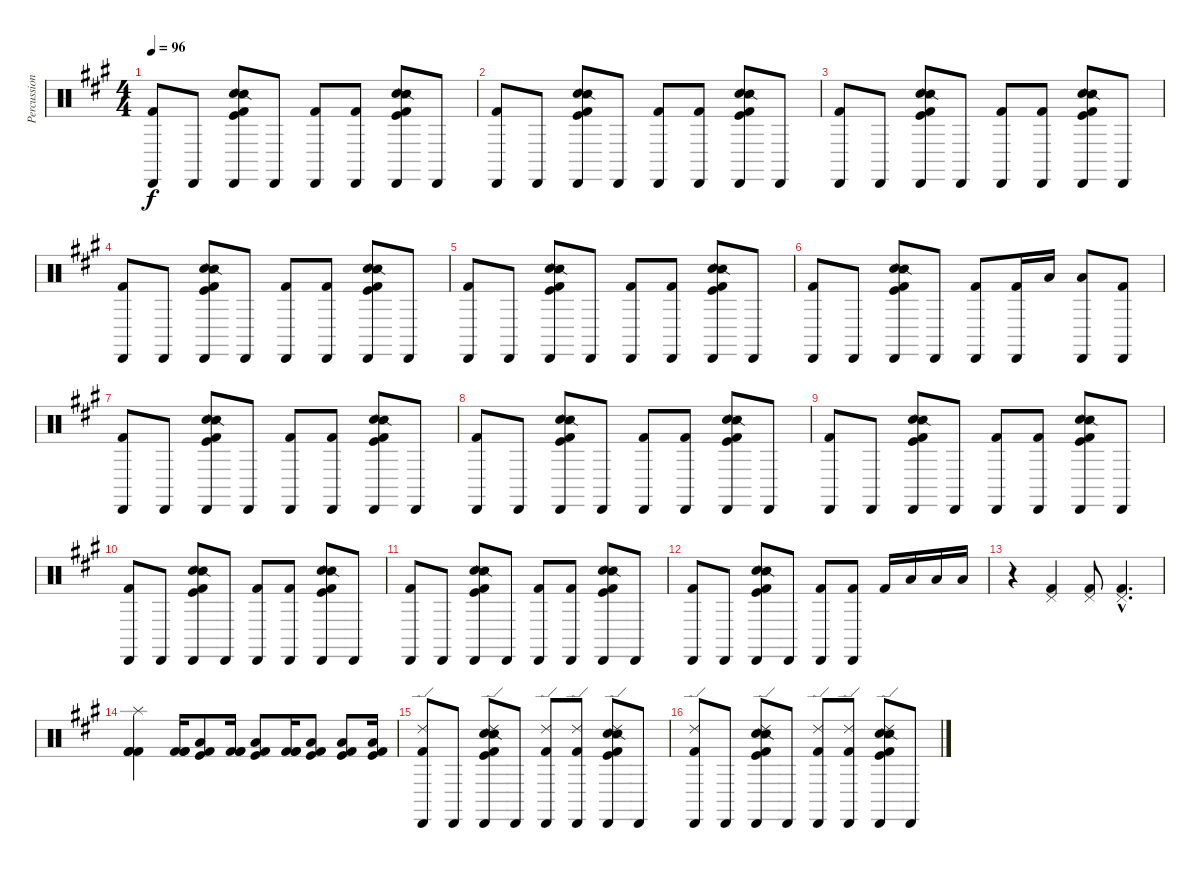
\track ("Percussion" "Percussion") {instrument percussion}
\staff {score}
\articulation defaults
\ts (4 4)
\tempo 96
\clef neutral
\ks a
("Kick (hit) 2" "Cabasa (hit)").8{dy f} "Cabasa (hit)".8 ("Hand Clap (hit)" "Snare (side stick) 2" "Kick (hit) 2" "Kick (hit)" "Cabasa (hit)").8 "Cabasa (hit)".8 ("Kick (hit) 2" "Cabasa (hit)").8 ("Kick (hit) 2" "Cabasa (hit)").8 ("Hand Clap (hit)" "Snare (side stick) 2" "Kick (hit) 2" "Kick (hit)" "Cabasa (hit)").8 "Cabasa (hit)".8 |
("Kick (hit) 2" "Cabasa (hit)").8 "Cabasa (hit)".8 ("Hand Clap (hit)" "Snare (side stick) 2" "Kick (hit) 2" "Kick (hit)" "Cabasa (hit)").8 "Cabasa (hit)".8 ("Kick (hit) 2" "Cabasa (hit)").8 ("Kick (hit) 2" "Cabasa (hit)").8 ("Hand Clap (hit)" "Snare (side stick) 2" "Kick (hit) 2" "Kick (hit)" "Cabasa (hit)").8 "Cabasa (hit)".8 |
("Kick (hit) 2" "Cabasa (hit)").8 "Cabasa (hit)".8 ("Hand Clap (hit)" "Snare (side stick) 2" "Kick (hit) 2" "Kick (hit)" "Cabasa (hit)").8 "Cabasa (hit)".8 ("Kick (hit) 2" "Cabasa (hit)").8 ("Kick (hit) 2" "Cabasa (hit)").8 ("Hand Clap (hit)" "Snare (side stick) 2" "Kick (hit) 2" "Kick (hit)" "Cabasa (hit)").8 "Cabasa (hit)".8 |
("Kick (hit) 2" "Cabasa (hit)").8 "Cabasa (hit)".8 ("Hand Clap (hit)" "Snare (side stick) 2" "Kick (hit) 2" "Kick (hit)" "Cabasa (hit)").8 "Cabasa (hit)".8 ("Kick (hit) 2" "Cabasa (hit)").8 ("Kick (hit) 2" "Cabasa (hit)").8 ("Hand Clap (hit)" "Snare (side stick) 2" "Kick (hit) 2" "Kick (hit)" "Cabasa (hit)").8 "Cabasa (hit)".8 |
("Kick (hit) 2" "Cabasa (hit)").8 "Cabasa (hit)".8 ("Hand Clap (hit)" "Snare (side stick) 2" "Kick (hit) 2" "Kick (hit)" "Cabasa (hit)").8 "Cabasa (hit)".8 ("Kick (hit) 2" "Cabasa (hit)").8 ("Kick (hit) 2" "Cabasa (hit)").8 ("Hand Clap (hit)" "Snare (side stick) 2" "Kick (hit) 2" "Kick (hit)" "Cabasa (hit)").8 "Cabasa (hit)".8 |
("Kick (hit) 2" "Cabasa (hit)").8 "Cabasa (hit)".8 ("Hand Clap (hit)" "Snare (side stick) 2" "Kick (hit) 2" "Kick (hit)" "Cabasa (hit)").8 "Cabasa (hit)".8 ("Kick (hit) 2" "Cabasa (hit)").8 ("Kick (hit) 2" "Cabasa (hit)").16 "Low Floor Tom (hit)".16 ("Low Floor Tom (hit)" "Cabasa (hit)").8 ("Kick (hit) 2" "Cabasa (hit)").8 |
("Kick (hit) 2" "Cabasa (hit)").8 "Cabasa (hit)".8 ("Hand Clap (hit)" "Snare (side stick) 2" "Kick (hit) 2" "Kick (hit)" "Cabasa (hit)").8 "Cabasa (hit)".8 ("Kick (hit) 2" "Cabasa (hit)").8 ("Kick (hit) 2" "Cabasa (hit)").8 ("Hand Clap (hit)" "Snare (side stick) 2" "Kick (hit) 2" "Kick (hit)" "Cabasa (hit)").8 "Cabasa (hit)".8 |
("Kick (hit) 2" "Cabasa (hit)").8 "Cabasa (hit)".8 ("Hand Clap (hit)" "Snare (side stick) 2" "Kick (hit) 2" "Kick (hit)" "Cabasa (hit)").8 "Cabasa (hit)".8 ("Kick (hit) 2" "Cabasa (hit)").8 ("Kick (hit) 2" "Cabasa (hit)").8 ("Hand Clap (hit)" "Snare (side stick) 2" "Kick (hit) 2" "Kick (hit)" "Cabasa (hit)").8 "Cabasa (hit)".8 |
("Kick (hit) 2" "Cabasa (hit)").8 "Cabasa (hit)".8 ("Hand Clap (hit)" "Snare (side stick) 2" "Kick (hit) 2" "Kick (hit)" "Cabasa (hit)").8 "Cabasa (hit)".8 ("Kick (hit) 2" "Cabasa (hit)").8 ("Kick (hit) 2" "Cabasa (hit)").8 ("Hand Clap (hit)" "Snare (side stick) 2" "Kick (hit) 2" "Kick (hit)" "Cabasa (hit)").8 "Cabasa (hit)".8 |
("Kick (hit) 2" "Cabasa (hit)").8 "Cabasa (hit)".8 ("Hand Clap (hit)" "Snare (side stick) 2" "Kick (hit) 2" "Kick (hit)" "Cabasa (hit)").8 "Cabasa (hit)".8 ("Kick (hit) 2" "Cabasa (hit)").8 ("Kick (hit) 2" "Cabasa (hit)").8 ("Hand Clap (hit)" "Snare (side stick) 2" "Kick (hit) 2" "Kick (hit)" "Cabasa (hit)").8 "Cabasa (hit)".8 |
("Kick (hit) 2" "Cabasa (hit)").8 "Cabasa (hit)".8 ("Hand Clap (hit)" "Snare (side stick) 2" "Kick (hit) 2" "Kick (hit)" "Cabasa (hit)").8 "Cabasa (hit)".8 ("Kick (hit) 2" "Cabasa (hit)").8 ("Kick (hit) 2" "Cabasa (hit)").8 ("Hand Clap (hit)" "Snare (side stick) 2" "Kick (hit) 2" "Kick (hit)" "Cabasa (hit)").8 "Cabasa (hit)".8 |
("Kick (hit) 2" "Cabasa (hit)").8 "Cabasa (hit)".8 ("Hand Clap (hit)" "Snare (side stick) 2" "Kick (hit) 2" "Kick (hit)" "Cabasa (hit)").8 "Cabasa (hit)".8 ("Kick (hit) 2" "Cabasa (hit)").8 ("Kick (hit) 2" "Cabasa (hit)").8 "Kick (hit) 2".16 "Low Floor Tom (hit)".16 "Low Floor Tom (hit)".16 "Low Floor Tom (hit)".16 |
r.4 ("Kick (hit) 2" "Pedal Hi-Hat (hit)").4 ("Kick (hit) 2" "Pedal Hi-Hat (hit)").8 ("Kick (hit) 2"{hac} "Pedal Hi-Hat (hit)"{hac}).4{d} |
("Kick (hit) 2" "Kick (hit) 2" "Kick (hit) 2" "Splash (hit)").4 ("Kick (hit) 2" "Kick (hit) 2" "Kick (hit) 2").16 ("Low Floor Tom (hit)" "Kick (hit)" "Kick (hit) 2").8 ("Kick (hit) 2" "Kick (hit) 2" "Kick (hit) 2").16 ("Low Floor Tom (hit)" "Kick (hit)" "Kick (hit) 2").8 ("Kick (hit) 2" "Kick (hit) 2" "Kick (hit) 2").16 ("Low Floor Tom (hit)" "Kick (hit) 2" "Kick (hit)").8 ("Low Floor Tom (hit)" "Kick (hit) 2" "Kick (hit)").8 ("Low Floor Tom (hit)" "Kick (hit)" "Kick (hit) 2").16 |
("Kick (hit) 2" "Cabasa (hit)" "Ride (edge) 2").8 "Cabasa (hit)".8 ("Hand Clap (hit)" "Snare (side stick) 2" "Kick (hit) 2" "Kick (hit)" "Cabasa (hit)" "Ride (edge) 2").8 "Cabasa (hit)".8 ("Kick (hit) 2" "Cabasa (hit)" "Ride (edge) 2").8 ("Kick (hit) 2" "Cabasa (hit)" "Ride (edge) 2").8 ("Hand Clap (hit)" "Snare (side stick) 2" "Kick (hit) 2" "Kick (hit)" "Cabasa (hit)" "Ride (edge) 2").8 "Cabasa (hit)".8 |
("Kick (hit) 2" "Cabasa (hit)" "Ride (edge) 2").8 "Cabasa (hit)".8 ("Hand Clap (hit)" "Snare (side stick) 2" "Kick (hit) 2" "Kick (hit)" "Cabasa (hit)" "Ride (edge) 2").8 "Cabasa (hit)".8 ("Kick (hit) 2" "Cabasa (hit)" "Ride (edge) 2").8 ("Kick (hit) 2" "Cabasa (hit)" "Ride (edge) 2").8 ("Hand Clap (hit)" "Snare (side stick) 2" "Kick (hit) 2" "Kick (hit)" "Cabasa (hit)" "Ride (edge) 2").8 "Cabasa (hit)".8
